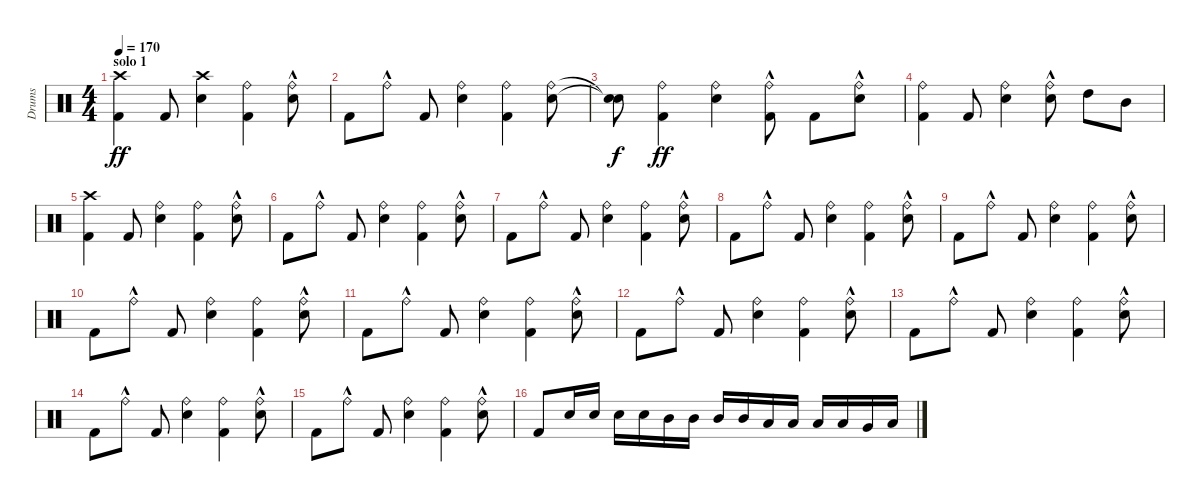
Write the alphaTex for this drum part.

\track ("Drums" "Drums") {instrument percussion}
\staff {score}
\articulation defaults
\ts (4 4)
\section ("" "solo 1")
\tempo 170
\clef neutral
\ks c
("Kick (hit) 2" "Crash high (hit)").4{dy ff} "Kick (hit) 2".8 ("Snare (hit) 2" "Crash high (hit)").4 ("Kick (hit) 2" "Ride (bell)").4 ("Snare (hit) 2" "Ride (bell)"{hac}).8 |
"Kick (hit) 2".8 "Ride (bell)"{hac}.8 "Kick (hit) 2".8 ("Snare (hit) 2" "Ride (bell)").4 ("Kick (hit) 2" "Ride (bell)").4 ("Snare (hit) 2" "Ride (bell)").8 |
("Snare (hit)"{t} "Snare (hit)"{t}).8{dy f} ("Kick (hit) 2" "Ride (bell)").4{dy ff} ("Snare (hit) 2" "Ride (bell)").4 ("Kick (hit) 2" "Ride (bell)"{hac}).8 "Kick (hit) 2".8 ("Snare (hit) 2" "Ride (bell)"{hac}).8 |
("Kick (hit) 2" "Ride (bell)").4 "Kick (hit) 2".8 ("Snare (hit) 2" "Ride (bell)").4 ("Snare (hit) 2" "Ride (bell)"{hac}).8 "High Tom (hit)".8 "Mid Tom (hit)".8 |
("Kick (hit) 2" "Crash high (hit)").4 "Kick (hit) 2".8 ("Snare (hit) 2" "Ride (bell)").4 ("Kick (hit) 2" "Ride (bell)").4 ("Snare (hit) 2" "Ride (bell)"{hac}).8 |
"Kick (hit) 2".8 "Ride (bell)"{hac}.8 "Kick (hit) 2".8 ("Snare (hit) 2" "Ride (bell)").4 ("Kick (hit) 2" "Ride (bell)").4 ("Snare (hit) 2" "Ride (bell)"{hac}).8 |
"Kick (hit) 2".8 "Ride (bell)"{hac}.8 "Kick (hit) 2".8 ("Snare (hit) 2" "Ride (bell)").4 ("Kick (hit) 2" "Ride (bell)").4 ("Snare (hit) 2" "Ride (bell)"{hac}).8 |
"Kick (hit) 2".8 "Ride (bell)"{hac}.8 "Kick (hit) 2".8 ("Snare (hit) 2" "Ride (bell)").4 ("Kick (hit) 2" "Ride (bell)").4 ("Snare (hit) 2" "Ride (bell)"{hac}).8 |
"Kick (hit) 2".8 "Ride (bell)"{hac}.8 "Kick (hit) 2".8 ("Snare (hit) 2" "Ride (bell)").4 ("Kick (hit) 2" "Ride (bell)").4 ("Snare (hit) 2" "Ride (bell)"{hac}).8 |
"Kick (hit) 2".8 "Ride (bell)"{hac}.8 "Kick (hit) 2".8 ("Snare (hit) 2" "Ride (bell)").4 ("Kick (hit) 2" "Ride (bell)").4 ("Snare (hit) 2" "Ride (bell)"{hac}).8 |
"Kick (hit) 2".8 "Ride (bell)"{hac}.8 "Kick (hit) 2".8 ("Snare (hit) 2" "Ride (bell)").4 ("Kick (hit) 2" "Ride (bell)").4 ("Snare (hit) 2" "Ride (bell)"{hac}).8 |
"Kick (hit) 2".8 "Ride (bell)"{hac}.8 "Kick (hit) 2".8 ("Snare (hit) 2" "Ride (bell)").4 ("Kick (hit) 2" "Ride (bell)").4 ("Snare (hit) 2" "Ride (bell)"{hac}).8 |
"Kick (hit) 2".8 "Ride (bell)"{hac}.8 "Kick (hit) 2".8 ("Snare (hit) 2" "Ride (bell)").4 ("Kick (hit) 2" "Ride (bell)").4 ("Snare (hit) 2" "Ride (bell)"{hac}).8 |
"Kick (hit) 2".8 "Ride (bell)"{hac}.8 "Kick (hit) 2".8 ("Snare (hit) 2" "Ride (bell)").4 ("Kick (hit) 2" "Ride (bell)").4 ("Snare (hit) 2" "Ride (bell)"{hac}).8 |
"Kick (hit) 2".8 "Ride (bell)"{hac}.8 "Kick (hit) 2".8 ("Snare (hit) 2" "Ride (bell)").4 ("Kick (hit) 2" "Ride (bell)").4 ("Snare (hit) 2" "Ride (bell)"{hac}).8 |
"Kick (hit) 2".8 "Snare (hit) 2".16 "Snare (hit) 2".16 "Snare (hit) 2".16 "Snare (hit) 2".16 "Mid Tom (hit)".16 "Mid Tom (hit)".16 "Mid Tom (hit)".16 "Mid Tom (hit)".16 "Low Tom (hit)".16 "Low Tom (hit)".16 "Low Tom (hit)".16 "Low Tom (hit)".16 "Very Low Tom (hit)".16 "Low Floor Tom (hit)".16
